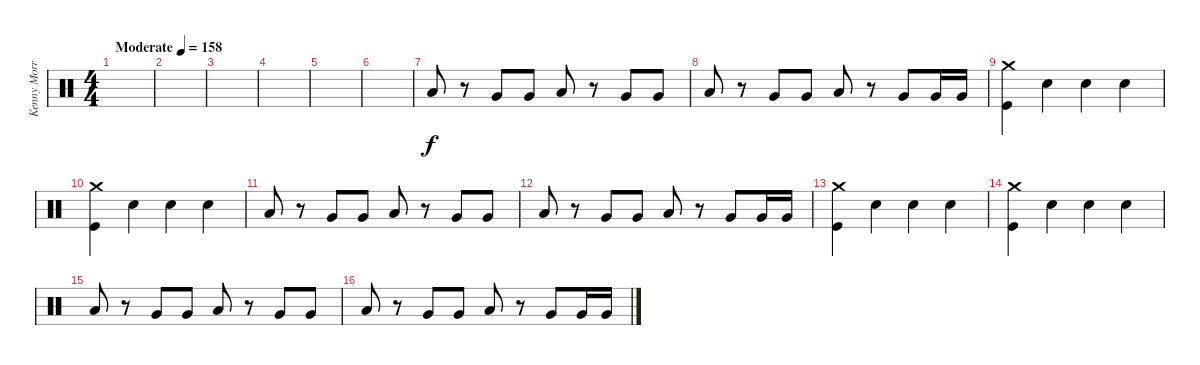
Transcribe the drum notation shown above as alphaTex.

\track ("Kenny Morris" "Kenny Morr") {instrument percussion}
\staff {score}
\articulation defaults
\ts (4 4)
\tempo (158 "Moderate")
\clef neutral
\ks c
|
|
|
|
|
|
"Low Tom (hit)".8 r.8 "Very Low Tom (hit)".8 "Very Low Tom (hit)".8 "Low Tom (hit)".8 r.8 "Very Low Tom (hit)".8 "Very Low Tom (hit)".8 |
"Low Tom (hit)".8 r.8 "Very Low Tom (hit)".8 "Very Low Tom (hit)".8 "Low Tom (hit)".8 r.8 "Very Low Tom (hit)".8 "Very Low Tom (hit)".16 "Very Low Tom (hit)".16 |
("Crash medium (hit)" "Kick (hit)").4 "Snare (hit) 2".4 "Snare (hit) 2".4 "Snare (hit) 2".4 |
("Crash medium (hit)" "Kick (hit)").4 "Snare (hit) 2".4 "Snare (hit) 2".4 "Snare (hit) 2".4 |
"Low Tom (hit)".8 r.8 "Very Low Tom (hit)".8 "Very Low Tom (hit)".8 "Low Tom (hit)".8 r.8 "Very Low Tom (hit)".8 "Very Low Tom (hit)".8 |
"Low Tom (hit)".8 r.8 "Very Low Tom (hit)".8 "Very Low Tom (hit)".8 "Low Tom (hit)".8 r.8 "Very Low Tom (hit)".8 "Very Low Tom (hit)".16 "Very Low Tom (hit)".16 |
("Crash medium (hit)" "Kick (hit)").4 "Snare (hit) 2".4 "Snare (hit) 2".4 "Snare (hit) 2".4 |
("Crash medium (hit)" "Kick (hit)").4 "Snare (hit) 2".4 "Snare (hit) 2".4 "Snare (hit) 2".4 |
"Low Tom (hit)".8 r.8 "Very Low Tom (hit)".8 "Very Low Tom (hit)".8 "Low Tom (hit)".8 r.8 "Very Low Tom (hit)".8 "Very Low Tom (hit)".8 |
"Low Tom (hit)".8 r.8 "Very Low Tom (hit)".8 "Very Low Tom (hit)".8 "Low Tom (hit)".8 r.8 "Very Low Tom (hit)".8 "Very Low Tom (hit)".16 "Very Low Tom (hit)".16
